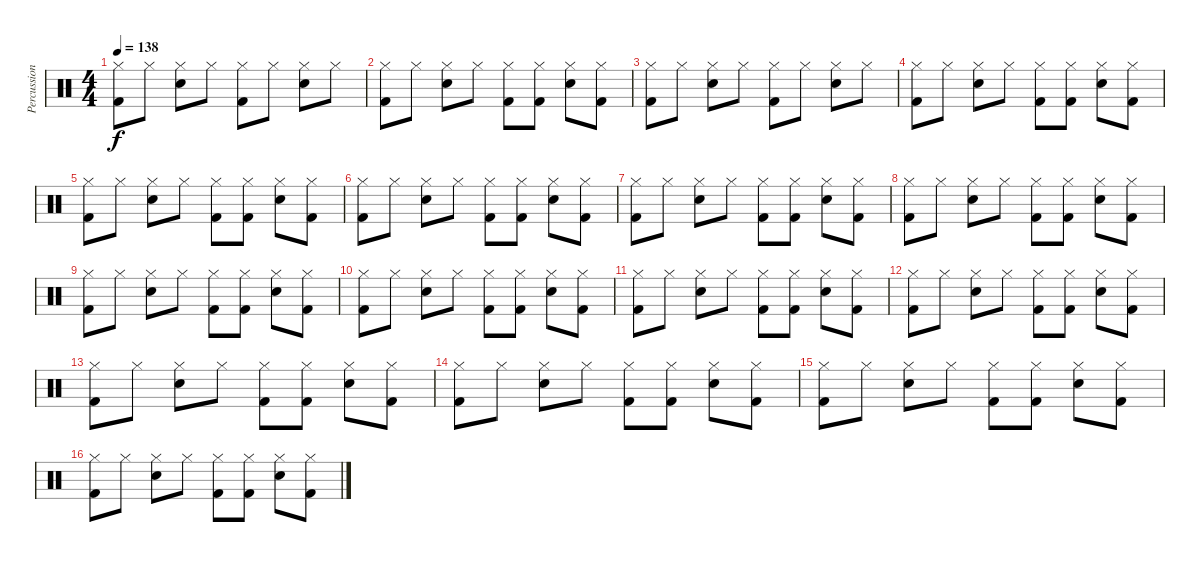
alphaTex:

\track ("Percussion" "Percussion") {instrument percussion}
\staff {score}
\articulation defaults
\ts (4 4)
\tempo 138
\clef neutral
\ks c
("Hi-Hat (closed)" "Kick (hit) 2").8{dy f} "Hi-Hat (closed)".8 ("Hi-Hat (closed)" "Snare (hit) 2").8 "Hi-Hat (closed)".8 ("Hi-Hat (closed)" "Kick (hit) 2").8 "Hi-Hat (closed)".8 ("Hi-Hat (closed)" "Snare (hit) 2").8 "Hi-Hat (closed)".8 |
("Hi-Hat (closed)" "Kick (hit) 2").8 "Hi-Hat (closed)".8 ("Hi-Hat (closed)" "Snare (hit) 2").8 "Hi-Hat (closed)".8 ("Hi-Hat (closed)" "Kick (hit) 2").8 ("Hi-Hat (closed)" "Kick (hit) 2").8 ("Hi-Hat (closed)" "Snare (hit) 2").8 ("Hi-Hat (closed)" "Kick (hit) 2").8 |
("Hi-Hat (closed)" "Kick (hit) 2").8 "Hi-Hat (closed)".8 ("Hi-Hat (closed)" "Snare (hit) 2").8 "Hi-Hat (closed)".8 ("Hi-Hat (closed)" "Kick (hit) 2").8 "Hi-Hat (closed)".8 ("Hi-Hat (closed)" "Snare (hit) 2").8 "Hi-Hat (closed)".8 |
("Hi-Hat (closed)" "Kick (hit) 2").8 "Hi-Hat (closed)".8 ("Hi-Hat (closed)" "Snare (hit) 2").8 "Hi-Hat (closed)".8 ("Hi-Hat (closed)" "Kick (hit) 2").8 ("Hi-Hat (closed)" "Kick (hit) 2").8 ("Hi-Hat (closed)" "Snare (hit) 2").8 ("Hi-Hat (closed)" "Kick (hit) 2").8 |
("Hi-Hat (closed)" "Kick (hit) 2").8 "Hi-Hat (closed)".8 ("Hi-Hat (closed)" "Snare (hit) 2").8 "Hi-Hat (closed)".8 ("Hi-Hat (closed)" "Kick (hit) 2").8 ("Hi-Hat (closed)" "Kick (hit) 2").8 ("Hi-Hat (closed)" "Snare (hit) 2").8 ("Hi-Hat (closed)" "Kick (hit) 2").8 |
("Hi-Hat (closed)" "Kick (hit) 2").8 "Hi-Hat (closed)".8 ("Hi-Hat (closed)" "Snare (hit) 2").8 "Hi-Hat (closed)".8 ("Hi-Hat (closed)" "Kick (hit) 2").8 ("Hi-Hat (closed)" "Kick (hit) 2").8 ("Hi-Hat (closed)" "Snare (hit) 2").8 ("Hi-Hat (closed)" "Kick (hit) 2").8 |
("Hi-Hat (closed)" "Kick (hit) 2").8 "Hi-Hat (closed)".8 ("Hi-Hat (closed)" "Snare (hit) 2").8 "Hi-Hat (closed)".8 ("Hi-Hat (closed)" "Kick (hit) 2").8 ("Hi-Hat (closed)" "Kick (hit) 2").8 ("Hi-Hat (closed)" "Snare (hit) 2").8 ("Hi-Hat (closed)" "Kick (hit) 2").8 |
("Hi-Hat (closed)" "Kick (hit) 2").8 "Hi-Hat (closed)".8 ("Hi-Hat (closed)" "Snare (hit) 2").8 "Hi-Hat (closed)".8 ("Hi-Hat (closed)" "Kick (hit) 2").8 ("Hi-Hat (closed)" "Kick (hit) 2").8 ("Hi-Hat (closed)" "Snare (hit) 2").8 ("Hi-Hat (closed)" "Kick (hit) 2").8 |
("Hi-Hat (closed)" "Kick (hit) 2").8 "Hi-Hat (closed)".8 ("Hi-Hat (closed)" "Snare (hit) 2").8 "Hi-Hat (closed)".8 ("Hi-Hat (closed)" "Kick (hit) 2").8 ("Hi-Hat (closed)" "Kick (hit) 2").8 ("Hi-Hat (closed)" "Snare (hit) 2").8 ("Hi-Hat (closed)" "Kick (hit) 2").8 |
("Hi-Hat (closed)" "Kick (hit) 2").8 "Hi-Hat (closed)".8 ("Hi-Hat (closed)" "Snare (hit) 2").8 "Hi-Hat (closed)".8 ("Hi-Hat (closed)" "Kick (hit) 2").8 ("Hi-Hat (closed)" "Kick (hit) 2").8 ("Hi-Hat (closed)" "Snare (hit) 2").8 ("Hi-Hat (closed)" "Kick (hit) 2").8 |
("Hi-Hat (closed)" "Kick (hit) 2").8 "Hi-Hat (closed)".8 ("Hi-Hat (closed)" "Snare (hit) 2").8 "Hi-Hat (closed)".8 ("Hi-Hat (closed)" "Kick (hit) 2").8 ("Hi-Hat (closed)" "Kick (hit) 2").8 ("Hi-Hat (closed)" "Snare (hit) 2").8 ("Hi-Hat (closed)" "Kick (hit) 2").8 |
("Hi-Hat (closed)" "Kick (hit) 2").8 "Hi-Hat (closed)".8 ("Hi-Hat (closed)" "Snare (hit) 2").8 "Hi-Hat (closed)".8 ("Hi-Hat (closed)" "Kick (hit) 2").8 ("Hi-Hat (closed)" "Kick (hit) 2").8 ("Hi-Hat (closed)" "Snare (hit) 2").8 ("Hi-Hat (closed)" "Kick (hit) 2").8 |
("Hi-Hat (closed)" "Kick (hit) 2").8 "Hi-Hat (closed)".8 ("Hi-Hat (closed)" "Snare (hit) 2").8 "Hi-Hat (closed)".8 ("Hi-Hat (closed)" "Kick (hit) 2").8 ("Hi-Hat (closed)" "Kick (hit) 2").8 ("Hi-Hat (closed)" "Snare (hit) 2").8 ("Hi-Hat (closed)" "Kick (hit) 2").8 |
("Hi-Hat (closed)" "Kick (hit) 2").8 "Hi-Hat (closed)".8 ("Hi-Hat (closed)" "Snare (hit) 2").8 "Hi-Hat (closed)".8 ("Hi-Hat (closed)" "Kick (hit) 2").8 ("Hi-Hat (closed)" "Kick (hit) 2").8 ("Hi-Hat (closed)" "Snare (hit) 2").8 ("Hi-Hat (closed)" "Kick (hit) 2").8 |
("Hi-Hat (closed)" "Kick (hit) 2").8 "Hi-Hat (closed)".8 ("Hi-Hat (closed)" "Snare (hit) 2").8 "Hi-Hat (closed)".8 ("Hi-Hat (closed)" "Kick (hit) 2").8 ("Hi-Hat (closed)" "Kick (hit) 2").8 ("Hi-Hat (closed)" "Snare (hit) 2").8 ("Hi-Hat (closed)" "Kick (hit) 2").8 |
("Hi-Hat (closed)" "Kick (hit) 2").8 "Hi-Hat (closed)".8 ("Hi-Hat (closed)" "Snare (hit) 2").8 "Hi-Hat (closed)".8 ("Hi-Hat (closed)" "Kick (hit) 2").8 ("Hi-Hat (closed)" "Kick (hit) 2").8 ("Hi-Hat (closed)" "Snare (hit) 2").8 ("Hi-Hat (closed)" "Kick (hit) 2").8
